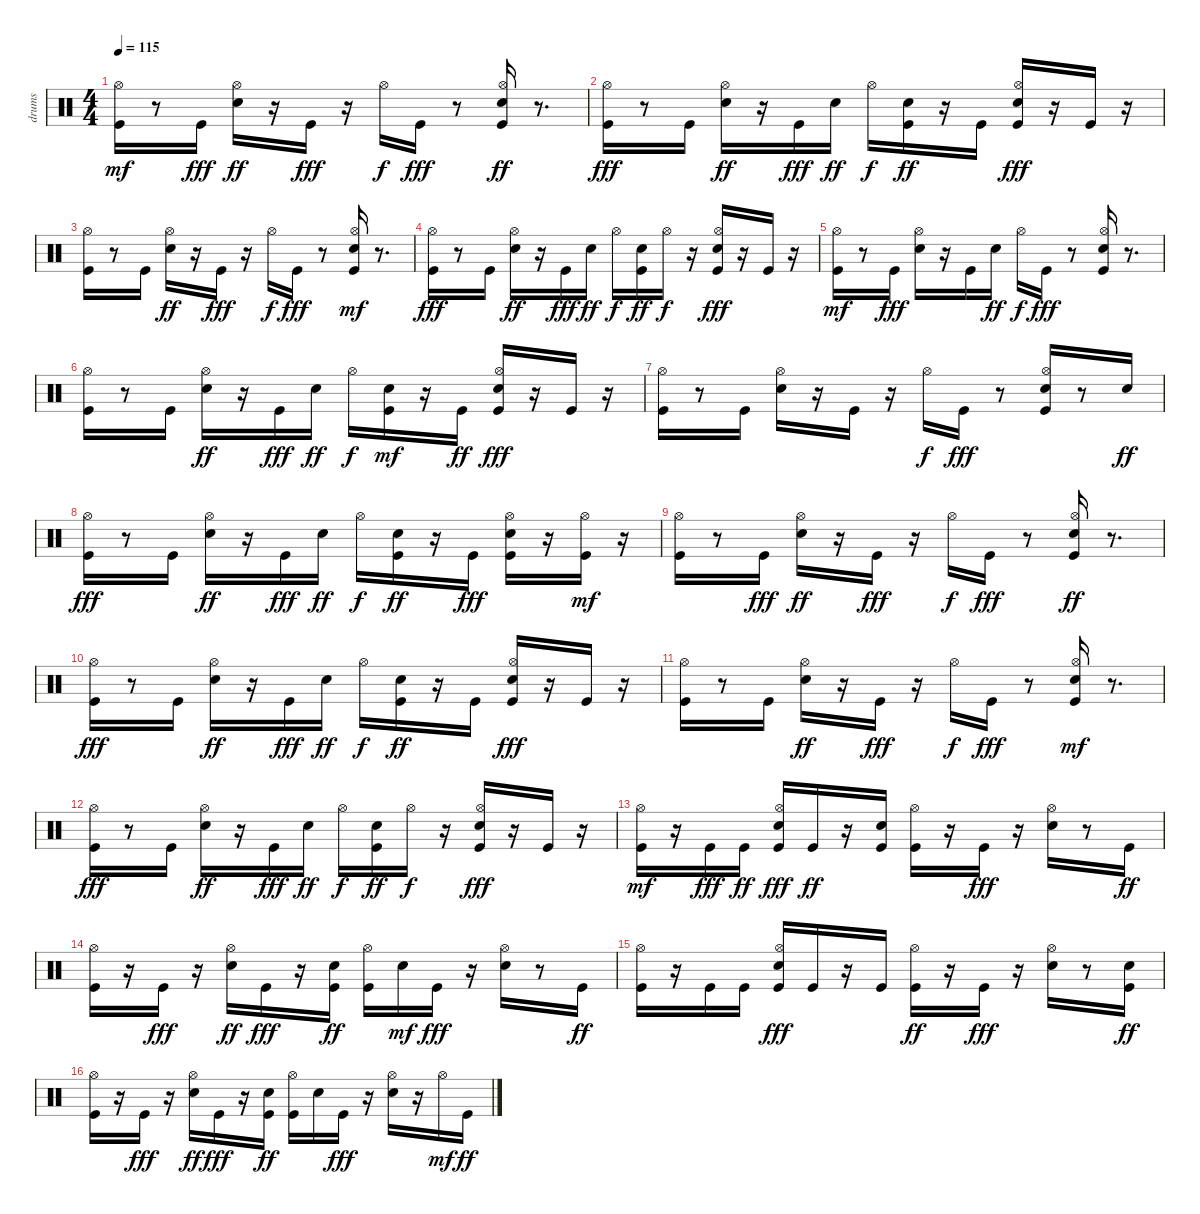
\track ("drums" "drums") {instrument percussion}
\staff {score}
\articulation defaults
\ts (4 4)
\tempo 115
\clef neutral
\ks c
("Kick (hit)" "Hi-Hat (open)").16{dy mf} r.8 "Kick (hit)".16{dy fff} ("Snare (hit) 2" "Hi-Hat (open)").16{dy ff} r.16 "Kick (hit)".16{dy fff} r.16 "Hi-Hat (open)".16{dy f} "Kick (hit)".16{dy fff} r.8 ("Kick (hit)" "Snare (hit) 2" "Hi-Hat (open)").16{dy ff} r.8{d} |
("Kick (hit)" "Hi-Hat (open)").16{dy fff} r.8 "Kick (hit)".16 ("Snare (hit) 2" "Hi-Hat (open)").16{dy ff} r.16 "Kick (hit)".16{dy fff} "Snare (hit) 2".16{dy ff} "Hi-Hat (open)".16{dy f} ("Kick (hit)" "Snare (hit) 2").16{dy ff} r.16 "Kick (hit)".16 ("Kick (hit)" "Snare (hit) 2" "Hi-Hat (open)").16{dy fff} r.16 "Kick (hit)".16 r.16 |
("Kick (hit)" "Hi-Hat (open)").16 r.8 "Kick (hit)".16 ("Snare (hit) 2" "Hi-Hat (open)").16{dy ff} r.16 "Kick (hit)".16{dy fff} r.16 "Hi-Hat (open)".16{dy f} "Kick (hit)".16{dy fff} r.8 ("Kick (hit)" "Snare (hit) 2" "Hi-Hat (open)").16{dy mf} r.8{d} |
("Kick (hit)" "Hi-Hat (open)").16{dy fff} r.8 "Kick (hit)".16 ("Snare (hit) 2" "Hi-Hat (open)").16{dy ff} r.16 "Kick (hit)".16{dy fff} "Snare (hit) 2".16{dy ff} "Hi-Hat (open)".16{dy f} ("Kick (hit)" "Snare (hit) 2").16{dy ff} "Hi-Hat (open)".16{dy f} r.16 ("Kick (hit)" "Snare (hit) 2" "Hi-Hat (open)").16{dy fff} r.16 "Kick (hit)".16 r.16 |
("Kick (hit)" "Hi-Hat (open)").16{dy mf} r.8 "Kick (hit)".16{dy fff} ("Snare (hit) 2" "Hi-Hat (open)").16 r.16 "Kick (hit)".16 "Snare (hit) 2".16{dy ff} "Hi-Hat (open)".16{dy f} "Kick (hit)".16{dy fff} r.8 ("Kick (hit)" "Snare (hit) 2" "Hi-Hat (open)").16 r.8{d} |
("Kick (hit)" "Hi-Hat (open)").16 r.8 "Kick (hit)".16 ("Snare (hit) 2" "Hi-Hat (open)").16{dy ff} r.16 "Kick (hit)".16{dy fff} "Snare (hit) 2".16{dy ff} "Hi-Hat (open)".16{dy f} ("Kick (hit)" "Snare (hit) 2").16{dy mf} r.16 "Kick (hit)".16{dy ff} ("Kick (hit)" "Snare (hit) 2" "Hi-Hat (open)").16{dy fff} r.16 "Kick (hit)".16 r.16 |
("Kick (hit)" "Hi-Hat (open)").16 r.8 "Kick (hit)".16 ("Snare (hit) 2" "Hi-Hat (open)").16 r.16 "Kick (hit)".16 r.16 "Hi-Hat (open)".16{dy f} "Kick (hit)".16{dy fff} r.8 ("Kick (hit)" "Snare (hit) 2" "Hi-Hat (open)").16 r.8 "Snare (hit) 2".16{dy ff} |
("Kick (hit)" "Hi-Hat (open)").16{dy fff} r.8 "Kick (hit)".16 ("Snare (hit) 2" "Hi-Hat (open)").16{dy ff} r.16 "Kick (hit)".16{dy fff} "Snare (hit) 2".16{dy ff} "Hi-Hat (open)".16{dy f} ("Kick (hit)" "Snare (hit) 2").16{dy ff} r.16 "Kick (hit)".16{dy fff} ("Kick (hit)" "Snare (hit) 2" "Hi-Hat (open)").16 r.16 ("Kick (hit)" "Hi-Hat (open)").16{dy mf} r.16 |
("Kick (hit)" "Hi-Hat (open)").16 r.8 "Kick (hit)".16{dy fff} ("Snare (hit) 2" "Hi-Hat (open)").16{dy ff} r.16 "Kick (hit)".16{dy fff} r.16 "Hi-Hat (open)".16{dy f} "Kick (hit)".16{dy fff} r.8 ("Kick (hit)" "Snare (hit) 2" "Hi-Hat (open)").16{dy ff} r.8{d} |
("Kick (hit)" "Hi-Hat (open)").16{dy fff} r.8 "Kick (hit)".16 ("Snare (hit) 2" "Hi-Hat (open)").16{dy ff} r.16 "Kick (hit)".16{dy fff} "Snare (hit) 2".16{dy ff} "Hi-Hat (open)".16{dy f} ("Kick (hit)" "Snare (hit) 2").16{dy ff} r.16 "Kick (hit)".16 ("Kick (hit)" "Snare (hit) 2" "Hi-Hat (open)").16{dy fff} r.16 "Kick (hit)".16 r.16 |
("Kick (hit)" "Hi-Hat (open)").16 r.8 "Kick (hit)".16 ("Snare (hit) 2" "Hi-Hat (open)").16{dy ff} r.16 "Kick (hit)".16{dy fff} r.16 "Hi-Hat (open)".16{dy f} "Kick (hit)".16{dy fff} r.8 ("Kick (hit)" "Snare (hit) 2" "Hi-Hat (open)").16{dy mf} r.8{d} |
("Kick (hit)" "Hi-Hat (open)").16{dy fff} r.8 "Kick (hit)".16 ("Snare (hit) 2" "Hi-Hat (open)").16{dy ff} r.16 "Kick (hit)".16{dy fff} "Snare (hit) 2".16{dy ff} "Hi-Hat (open)".16{dy f} ("Kick (hit)" "Snare (hit) 2").16{dy ff} "Hi-Hat (open)".16{dy f} r.16 ("Kick (hit)" "Snare (hit) 2" "Hi-Hat (open)").16{dy fff} r.16 "Kick (hit)".16 r.16 |
("Kick (hit)" "Hi-Hat (open)").16{dy mf} r.16 "Kick (hit)".16{dy fff} "Kick (hit)".16{dy ff} ("Kick (hit)" "Snare (hit) 2" "Hi-Hat (open)").16{dy fff} "Kick (hit)".16{dy ff} r.16 ("Kick (hit)" "Snare (hit) 2").16 ("Kick (hit)" "Hi-Hat (open)").16 r.16 "Kick (hit)".16{dy fff} r.16 ("Snare (hit) 2" "Hi-Hat (open)").16 r.8 "Kick (hit)".16{dy ff} |
("Kick (hit)" "Hi-Hat (open)").16 r.16 "Kick (hit)".16{dy fff} r.16 ("Snare (hit) 2" "Hi-Hat (open)").16{dy ff} "Kick (hit)".16{dy fff} r.16 ("Kick (hit)" "Snare (hit) 2").16{dy ff} ("Kick (hit)" "Hi-Hat (open)").16 "Snare (hit) 2".16{dy mf} "Kick (hit)".16{dy fff} r.16 ("Snare (hit) 2" "Hi-Hat (open)").16 r.8 "Kick (hit)".16{dy ff} |
("Kick (hit)" "Hi-Hat (open)").16 r.16 "Kick (hit)".16 "Kick (hit)".16 ("Kick (hit)" "Snare (hit) 2" "Hi-Hat (open)").16{dy fff} "Kick (hit)".16 r.16 "Kick (hit)".16 ("Kick (hit)" "Hi-Hat (open)").16{dy ff} r.16 "Kick (hit)".16{dy fff} r.16 ("Snare (hit) 2" "Hi-Hat (open)").16 r.8 ("Kick (hit)" "Snare (hit) 2").16{dy ff} |
("Kick (hit)" "Hi-Hat (open)").16 r.16 "Kick (hit)".16{dy fff} r.16 ("Snare (hit) 2" "Hi-Hat (open)").16{dy ff} "Kick (hit)".16{dy fff} r.16 ("Kick (hit)" "Snare (hit) 2").16{dy ff} ("Kick (hit)" "Hi-Hat (open)").16 "Snare (hit) 2".16 "Kick (hit)".16{dy fff} r.16 ("Snare (hit) 2" "Hi-Hat (open)").16 r.16 "Hi-Hat (open)".16{dy mf} "Kick (hit)".16{dy ff}
